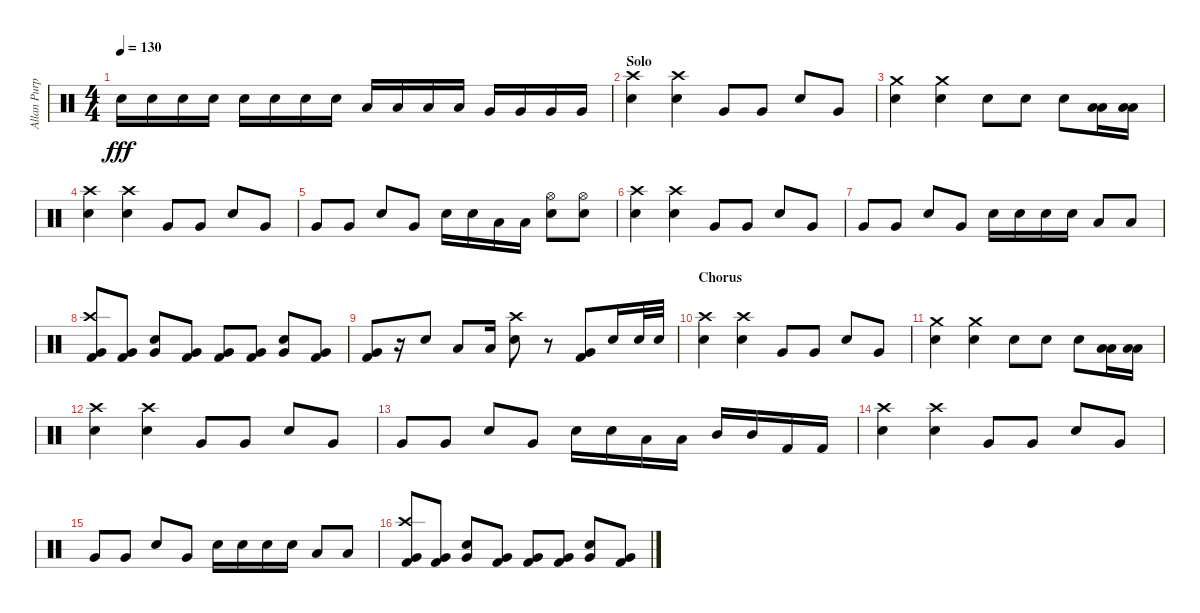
\track ("Allan Purple" "Allan Purp") {instrument percussion}
\staff {score}
\articulation defaults
\ts (4 4)
\tempo 130
\clef neutral
\ks c "Electric Snare (hit)".16{dy fff} "Electric Snare (hit)".16 "Electric Snare (hit)".16 "Electric Snare (hit)".16 "Snare (hit) 2".16 "Snare (hit) 2".16 "Snare (hit) 2".16 "Snare (hit) 2".16 "Low Tom (hit)".16 "Low Tom (hit)".16 "Low Tom (hit)".16 "Low Tom (hit)".16 "Very Low Tom (hit)".16 "Very Low Tom (hit)".16 "Very Low Tom (hit)".16 "Very Low Tom (hit)".16
|
\section ("" "Solo")
("Crash high (hit)" "Electric Snare (hit)").4 ("Crash high (hit)" "Electric Snare (hit)").4 "Very Low Tom (hit)".8 "Very Low Tom (hit)".8 "Electric Snare (hit)".8 "Very Low Tom (hit)".8 |
("Crash medium (hit)" "Electric Snare (hit)").4 ("Crash medium (hit)" "Electric Snare (hit)").4 "Snare (hit) 2".8 "Snare (hit) 2".8 "Electric Snare (hit)".8 ("Low Tom (hit)" "Low Tom (hit)").16 ("Low Tom (hit)" "Low Tom (hit)").16 |
("Crash high (hit)" "Electric Snare (hit)").4 ("Crash high (hit)" "Electric Snare (hit)").4 "Very Low Tom (hit)".8 "Very Low Tom (hit)".8 "Electric Snare (hit)".8 "Very Low Tom (hit)".8 |
"Very Low Tom (hit)".8 "Very Low Tom (hit)".8 "Electric Snare (hit)".8 "Very Low Tom (hit)".8 "Electric Snare (hit)".16 "Electric Snare (hit)".16 "Low Tom (hit)".16 "Low Tom (hit)".16 ("Hi-Hat (open)" "Electric Snare (hit)").8 ("Hi-Hat (open)" "Electric Snare (hit)").8 |
("Crash high (hit)" "Electric Snare (hit)").4 ("Crash high (hit)" "Electric Snare (hit)").4 "Very Low Tom (hit)".8 "Very Low Tom (hit)".8 "Electric Snare (hit)".8 "Very Low Tom (hit)".8 |
"Very Low Tom (hit)".8 "Very Low Tom (hit)".8 "Electric Snare (hit)".8 "Very Low Tom (hit)".8 "Electric Snare (hit)".16 "Electric Snare (hit)".16 "Snare (hit) 2".16 "Snare (hit) 2".16 "Low Tom (hit)".8 "Low Tom (hit)".8 |
("Crash high (hit)" "Kick (hit) 2" "Very Low Tom (hit)").8 ("Kick (hit) 2" "Very Low Tom (hit)").8 ("Electric Snare (hit)" "Very Low Tom (hit)").8 ("Kick (hit) 2" "Very Low Tom (hit)").8 ("Kick (hit) 2" "Very Low Tom (hit)").8 ("Kick (hit) 2" "Very Low Tom (hit)").8 ("Electric Snare (hit)" "Very Low Tom (hit)").8 ("Kick (hit) 2" "Very Low Tom (hit)").8 |
("Kick (hit) 2" "Very Low Tom (hit)").8 r.16 "Electric Snare (hit)".8 "Low Tom (hit)".8 "Low Tom (hit)".16 ("Crash high (hit)" "Electric Snare (hit)").8 r.8 ("Kick (hit) 2" "Very Low Tom (hit)").8 "Electric Snare (hit)".16 "Electric Snare (hit)".32 "Electric Snare (hit)".32 |
\section ("" "Chorus")
("Crash high (hit)" "Electric Snare (hit)").4 ("Crash high (hit)" "Electric Snare (hit)").4 "Very Low Tom (hit)".8 "Very Low Tom (hit)".8 "Electric Snare (hit)".8 "Very Low Tom (hit)".8 |
("Crash medium (hit)" "Electric Snare (hit)").4 ("Crash medium (hit)" "Electric Snare (hit)").4 "Snare (hit) 2".8 "Snare (hit) 2".8 "Electric Snare (hit)".8 ("Low Tom (hit)" "Low Tom (hit)").16 ("Low Tom (hit)" "Low Tom (hit)").16 |
("Crash high (hit)" "Electric Snare (hit)").4 ("Crash high (hit)" "Electric Snare (hit)").4 "Very Low Tom (hit)".8 "Very Low Tom (hit)".8 "Electric Snare (hit)".8 "Very Low Tom (hit)".8 |
"Very Low Tom (hit)".8 "Very Low Tom (hit)".8 "Electric Snare (hit)".8 "Very Low Tom (hit)".8 "Electric Snare (hit)".16 "Electric Snare (hit)".16 "Low Tom (hit)".16 "Low Tom (hit)".16 "Mid Tom (hit)".16 "Mid Tom (hit)".16 "Kick (hit) 2".16 "Kick (hit) 2".16 |
("Crash high (hit)" "Electric Snare (hit)").4 ("Crash high (hit)" "Electric Snare (hit)").4 "Very Low Tom (hit)".8 "Very Low Tom (hit)".8 "Electric Snare (hit)".8 "Very Low Tom (hit)".8 |
"Very Low Tom (hit)".8 "Very Low Tom (hit)".8 "Electric Snare (hit)".8 "Very Low Tom (hit)".8 "Electric Snare (hit)".16 "Electric Snare (hit)".16 "Snare (hit) 2".16 "Snare (hit) 2".16 "Low Tom (hit)".8 "Low Tom (hit)".8 |
("Crash high (hit)" "Kick (hit) 2" "Very Low Tom (hit)").8 ("Kick (hit) 2" "Very Low Tom (hit)").8 ("Electric Snare (hit)" "Very Low Tom (hit)").8 ("Kick (hit) 2" "Very Low Tom (hit)").8 ("Kick (hit) 2" "Very Low Tom (hit)").8 ("Kick (hit) 2" "Very Low Tom (hit)").8 ("Electric Snare (hit)" "Very Low Tom (hit)").8 ("Kick (hit) 2" "Very Low Tom (hit)").8
